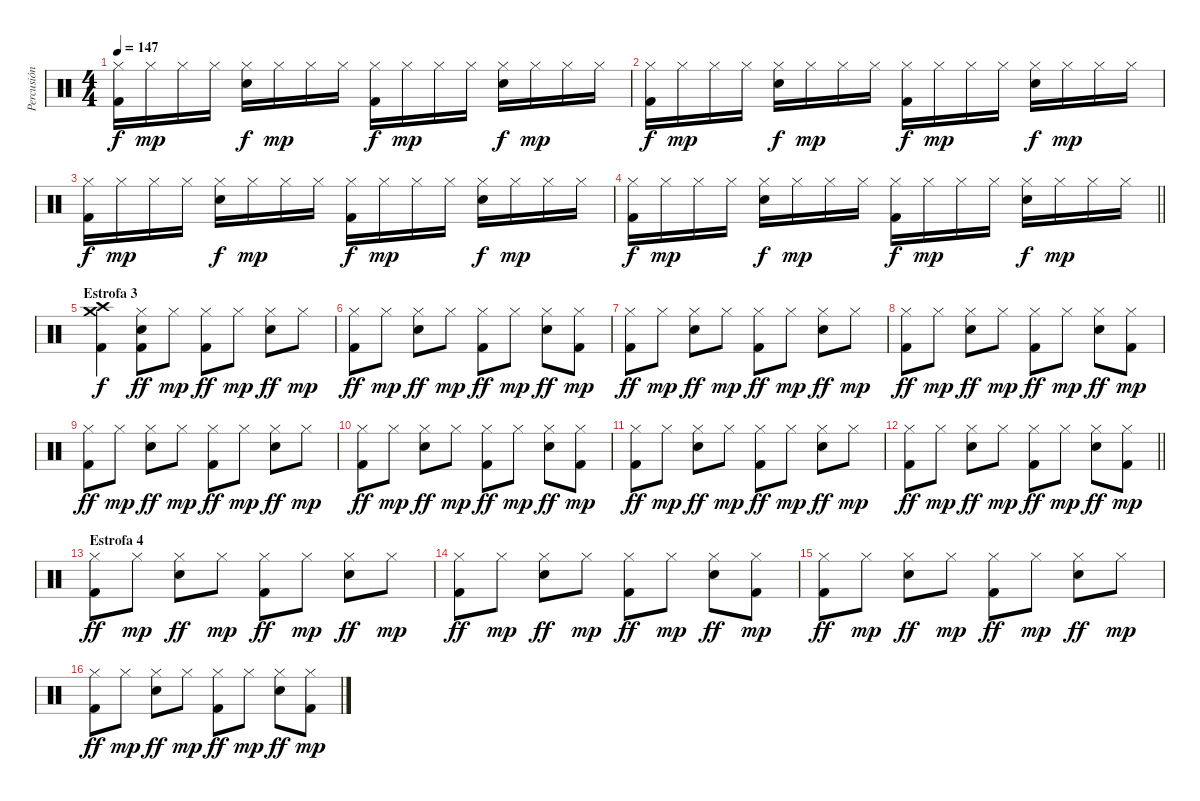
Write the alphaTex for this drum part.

\track ("Percusión" "Percusión") {instrument percussion}
\staff {score}
\articulation defaults
\ts (4 4)
\tempo 147
\clef neutral
\ks c
("Hi-Hat (closed)" "Kick (hit) 2").16{dy f} "Hi-Hat (closed)".16{dy mp} "Hi-Hat (closed)".16 "Hi-Hat (closed)".16 ("Hi-Hat (closed)" "Snare (hit) 2").16{dy f} "Hi-Hat (closed)".16{dy mp} "Hi-Hat (closed)".16 "Hi-Hat (closed)".16 ("Hi-Hat (closed)" "Kick (hit) 2").16{dy f} "Hi-Hat (closed)".16{dy mp} "Hi-Hat (closed)".16 "Hi-Hat (closed)".16 ("Hi-Hat (closed)" "Snare (hit) 2").16{dy f} "Hi-Hat (closed)".16{dy mp} "Hi-Hat (closed)".16 "Hi-Hat (closed)".16 |
("Hi-Hat (closed)" "Kick (hit) 2").16{dy f} "Hi-Hat (closed)".16{dy mp} "Hi-Hat (closed)".16 "Hi-Hat (closed)".16 ("Hi-Hat (closed)" "Snare (hit) 2").16{dy f} "Hi-Hat (closed)".16{dy mp} "Hi-Hat (closed)".16 "Hi-Hat (closed)".16 ("Hi-Hat (closed)" "Kick (hit) 2").16{dy f} "Hi-Hat (closed)".16{dy mp} "Hi-Hat (closed)".16 "Hi-Hat (closed)".16 ("Hi-Hat (closed)" "Snare (hit) 2").16{dy f} "Hi-Hat (closed)".16{dy mp} "Hi-Hat (closed)".16 "Hi-Hat (closed)".16 |
("Hi-Hat (closed)" "Kick (hit) 2").16{dy f} "Hi-Hat (closed)".16{dy mp} "Hi-Hat (closed)".16 "Hi-Hat (closed)".16 ("Hi-Hat (closed)" "Snare (hit) 2").16{dy f} "Hi-Hat (closed)".16{dy mp} "Hi-Hat (closed)".16 "Hi-Hat (closed)".16 ("Hi-Hat (closed)" "Kick (hit) 2").16{dy f} "Hi-Hat (closed)".16{dy mp} "Hi-Hat (closed)".16 "Hi-Hat (closed)".16 ("Hi-Hat (closed)" "Snare (hit) 2").16{dy f} "Hi-Hat (closed)".16{dy mp} "Hi-Hat (closed)".16 "Hi-Hat (closed)".16 |
\barLineRight lightlight
("Hi-Hat (closed)" "Kick (hit) 2").16{dy f} "Hi-Hat (closed)".16{dy mp} "Hi-Hat (closed)".16 "Hi-Hat (closed)".16 ("Hi-Hat (closed)" "Snare (hit) 2").16{dy f} "Hi-Hat (closed)".16{dy mp} "Hi-Hat (closed)".16 "Hi-Hat (closed)".16 ("Hi-Hat (closed)" "Kick (hit) 2").16{dy f} "Hi-Hat (closed)".16{dy mp} "Hi-Hat (closed)".16 "Hi-Hat (closed)".16 ("Hi-Hat (closed)" "Snare (hit) 2").16{dy f} "Hi-Hat (closed)".16{dy mp} "Hi-Hat (closed)".16 "Hi-Hat (closed)".16 |
\section ("" "Estrofa 3")
("Crash high (hit)" "Crash medium (hit)" "Kick (hit) 2").4{dy f} ("Hi-Hat (closed)" "Snare (hit) 2" "Kick (hit) 2").8{dy ff} "Hi-Hat (closed)".8{dy mp} ("Hi-Hat (closed)" "Kick (hit) 2").8{dy ff} "Hi-Hat (closed)".8{dy mp} ("Hi-Hat (closed)" "Snare (hit) 2").8{dy ff} "Hi-Hat (closed)".8{dy mp} |
("Hi-Hat (closed)" "Kick (hit) 2").8{dy ff} "Hi-Hat (closed)".8{dy mp} ("Hi-Hat (closed)" "Snare (hit) 2").8{dy ff} "Hi-Hat (closed)".8{dy mp} ("Hi-Hat (closed)" "Kick (hit) 2").8{dy ff} "Hi-Hat (closed)".8{dy mp} ("Hi-Hat (closed)" "Snare (hit) 2").8{dy ff} ("Hi-Hat (closed)" "Kick (hit) 2").8{dy mp} |
("Hi-Hat (closed)" "Kick (hit) 2").8{dy ff} "Hi-Hat (closed)".8{dy mp} ("Hi-Hat (closed)" "Snare (hit) 2").8{dy ff} "Hi-Hat (closed)".8{dy mp} ("Hi-Hat (closed)" "Kick (hit) 2").8{dy ff} "Hi-Hat (closed)".8{dy mp} ("Hi-Hat (closed)" "Snare (hit) 2").8{dy ff} "Hi-Hat (closed)".8{dy mp} |
("Hi-Hat (closed)" "Kick (hit) 2").8{dy ff} "Hi-Hat (closed)".8{dy mp} ("Hi-Hat (closed)" "Snare (hit) 2").8{dy ff} "Hi-Hat (closed)".8{dy mp} ("Hi-Hat (closed)" "Kick (hit) 2").8{dy ff} "Hi-Hat (closed)".8{dy mp} ("Hi-Hat (closed)" "Snare (hit) 2").8{dy ff} ("Hi-Hat (closed)" "Kick (hit) 2").8{dy mp} |
("Hi-Hat (closed)" "Kick (hit) 2").8{dy ff} "Hi-Hat (closed)".8{dy mp} ("Hi-Hat (closed)" "Snare (hit) 2").8{dy ff} "Hi-Hat (closed)".8{dy mp} ("Hi-Hat (closed)" "Kick (hit) 2").8{dy ff} "Hi-Hat (closed)".8{dy mp} ("Hi-Hat (closed)" "Snare (hit) 2").8{dy ff} "Hi-Hat (closed)".8{dy mp} |
("Hi-Hat (closed)" "Kick (hit) 2").8{dy ff} "Hi-Hat (closed)".8{dy mp} ("Hi-Hat (closed)" "Snare (hit) 2").8{dy ff} "Hi-Hat (closed)".8{dy mp} ("Hi-Hat (closed)" "Kick (hit) 2").8{dy ff} "Hi-Hat (closed)".8{dy mp} ("Hi-Hat (closed)" "Snare (hit) 2").8{dy ff} ("Hi-Hat (closed)" "Kick (hit) 2").8{dy mp} |
("Hi-Hat (closed)" "Kick (hit) 2").8{dy ff} "Hi-Hat (closed)".8{dy mp} ("Hi-Hat (closed)" "Snare (hit) 2").8{dy ff} "Hi-Hat (closed)".8{dy mp} ("Hi-Hat (closed)" "Kick (hit) 2").8{dy ff} "Hi-Hat (closed)".8{dy mp} ("Hi-Hat (closed)" "Snare (hit) 2").8{dy ff} "Hi-Hat (closed)".8{dy mp} |
\barLineRight lightlight
("Hi-Hat (closed)" "Kick (hit) 2").8{dy ff} "Hi-Hat (closed)".8{dy mp} ("Hi-Hat (closed)" "Snare (hit) 2").8{dy ff} "Hi-Hat (closed)".8{dy mp} ("Hi-Hat (closed)" "Kick (hit) 2").8{dy ff} "Hi-Hat (closed)".8{dy mp} ("Hi-Hat (closed)" "Snare (hit) 2").8{dy ff} ("Hi-Hat (closed)" "Kick (hit) 2").8{dy mp} |
\section ("" "Estrofa 4")
("Hi-Hat (closed)" "Kick (hit) 2").8{dy ff} "Hi-Hat (closed)".8{dy mp} ("Hi-Hat (closed)" "Snare (hit) 2").8{dy ff} "Hi-Hat (closed)".8{dy mp} ("Hi-Hat (closed)" "Kick (hit) 2").8{dy ff} "Hi-Hat (closed)".8{dy mp} ("Hi-Hat (closed)" "Snare (hit) 2").8{dy ff} "Hi-Hat (closed)".8{dy mp} |
("Hi-Hat (closed)" "Kick (hit) 2").8{dy ff} "Hi-Hat (closed)".8{dy mp} ("Hi-Hat (closed)" "Snare (hit) 2").8{dy ff} "Hi-Hat (closed)".8{dy mp} ("Hi-Hat (closed)" "Kick (hit) 2").8{dy ff} "Hi-Hat (closed)".8{dy mp} ("Hi-Hat (closed)" "Snare (hit) 2").8{dy ff} ("Hi-Hat (closed)" "Kick (hit) 2").8{dy mp} |
("Hi-Hat (closed)" "Kick (hit) 2").8{dy ff} "Hi-Hat (closed)".8{dy mp} ("Hi-Hat (closed)" "Snare (hit) 2").8{dy ff} "Hi-Hat (closed)".8{dy mp} ("Hi-Hat (closed)" "Kick (hit) 2").8{dy ff} "Hi-Hat (closed)".8{dy mp} ("Hi-Hat (closed)" "Snare (hit) 2").8{dy ff} "Hi-Hat (closed)".8{dy mp} |
("Hi-Hat (closed)" "Kick (hit) 2").8{dy ff} "Hi-Hat (closed)".8{dy mp} ("Hi-Hat (closed)" "Snare (hit) 2").8{dy ff} "Hi-Hat (closed)".8{dy mp} ("Hi-Hat (closed)" "Kick (hit) 2").8{dy ff} "Hi-Hat (closed)".8{dy mp} ("Hi-Hat (closed)" "Snare (hit) 2").8{dy ff} ("Hi-Hat (closed)" "Kick (hit) 2").8{dy mp}
